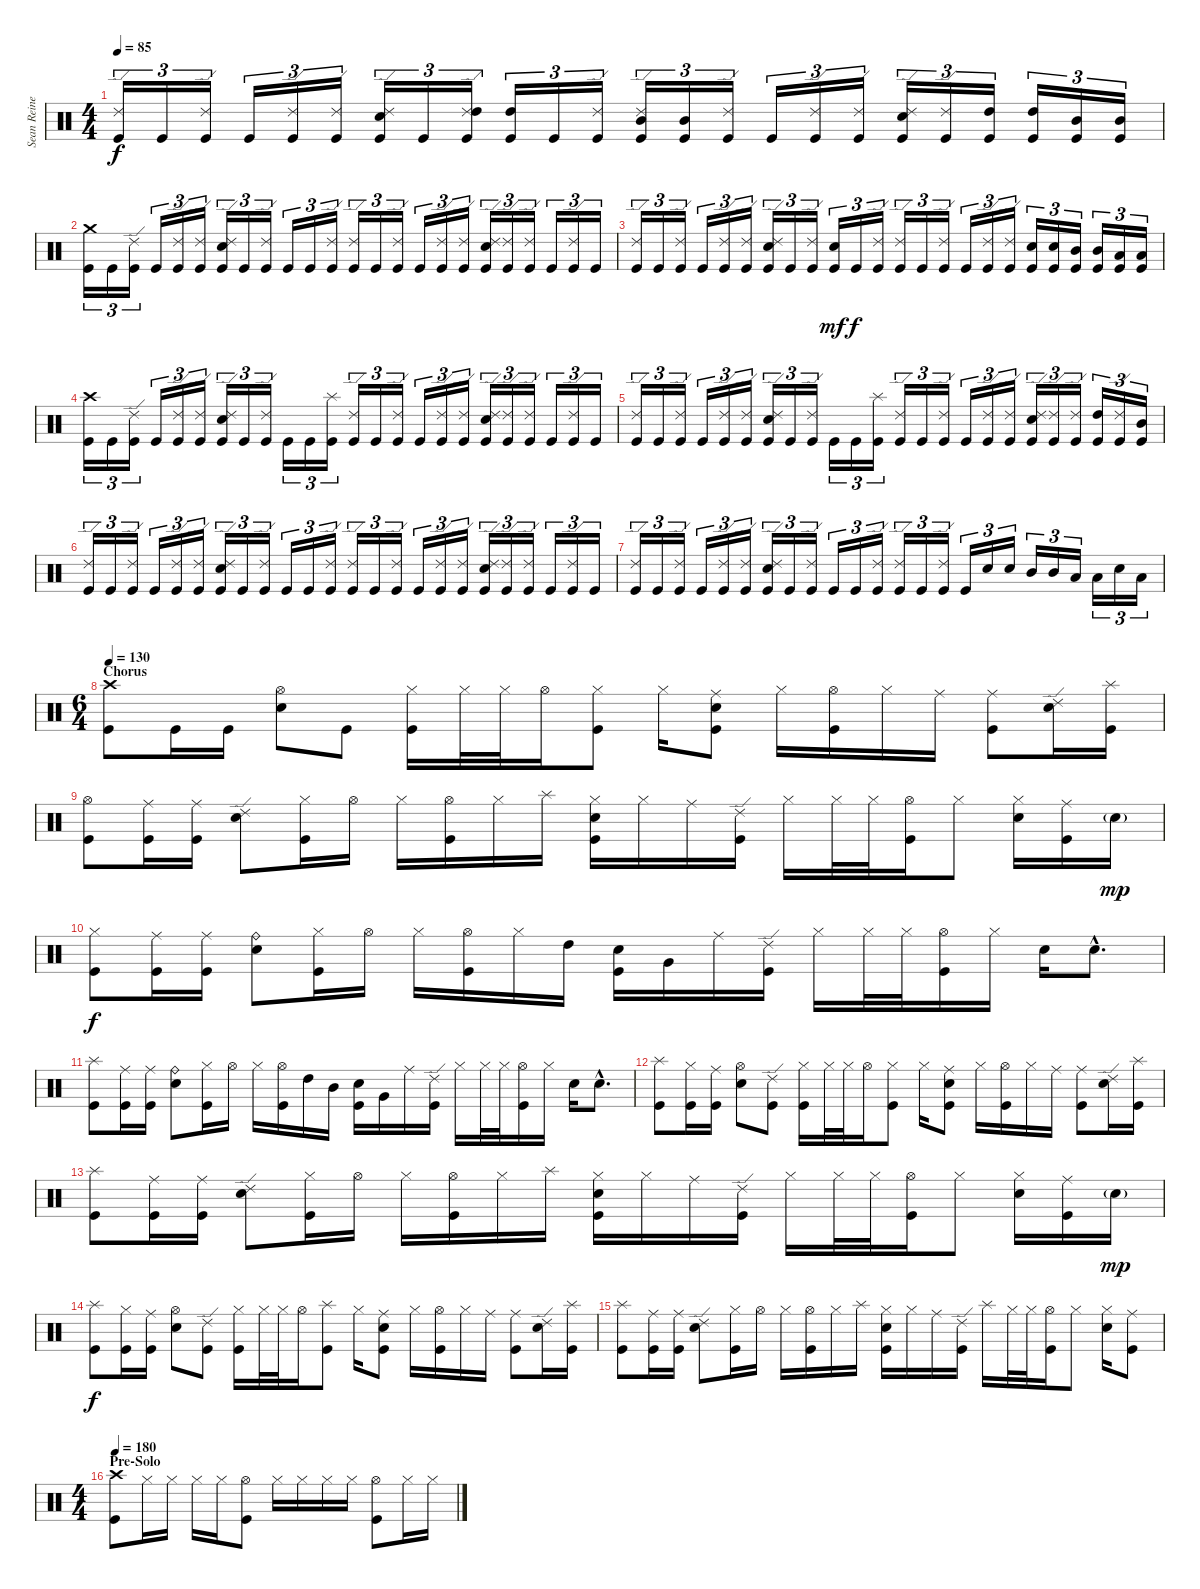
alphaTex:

\track ("Sean Reinert " "Sean Reine") {instrument percussion}
\staff {score}
\articulation defaults
\ts (4 4)
\tempo 85
\clef neutral
\ks c
("Ride (edge) 2" "Kick (hit)").16{tu (3 2) dy f} "Kick (hit)".16{tu (3 2)} ("Ride (edge) 2" "Kick (hit)").16{tu (3 2)} "Kick (hit)".16{tu (3 2)} ("Ride (edge) 2" "Kick (hit)").16{tu (3 2)} ("Ride (edge) 2" "Kick (hit)").16{tu (3 2)} ("Ride (edge) 2" "Electric Snare (hit)" "Kick (hit)").16{tu (3 2)} "Kick (hit)".16{tu (3 2)} ("Ride (edge) 2" "High Tom (hit)" "Kick (hit)").16{tu (3 2)} ("High Tom (hit)" "Kick (hit)").16{tu (3 2)} "Kick (hit)".16{tu (3 2)} ("Ride (edge) 2" "Kick (hit)").16{tu (3 2)} ("Ride (edge) 2" "Mid Tom (hit)" "Kick (hit)").16{tu (3 2)} ("Mid Tom (hit)" "Kick (hit)").16{tu (3 2)} ("Ride (edge) 2" "Kick (hit)").16{tu (3 2)} "Kick (hit)".16{tu (3 2)} ("Ride (edge) 2" "Kick (hit)").16{tu (3 2)} ("Ride (edge) 2" "Kick (hit)").16{tu (3 2)} ("Ride (edge) 2" "Electric Snare (hit)" "Kick (hit)").16{tu (3 2)} ("Ride (edge) 2" "Kick (hit)").16{tu (3 2)} ("High Tom (hit)" "Kick (hit)").16{tu (3 2)} ("High Tom (hit)" "Kick (hit)").16{tu (3 2)} ("Mid Tom (hit)" "Kick (hit)").16{tu (3 2)} ("Mid Tom (hit)" "Kick (hit)").16{tu (3 2)} |
("Crash medium (hit)" "Kick (hit)").16{tu (3 2)} "Kick (hit)".16{tu (3 2)} ("Ride (edge) 2" "Kick (hit)").16{tu (3 2)} "Kick (hit)".16{tu (3 2)} ("Ride (edge) 2" "Kick (hit)").16{tu (3 2)} ("Ride (edge) 2" "Kick (hit)").16{tu (3 2)} ("Ride (edge) 2" "Electric Snare (hit)" "Kick (hit)").16{tu (3 2)} "Kick (hit)".16{tu (3 2)} ("Ride (edge) 2" "Kick (hit)").16{tu (3 2)} "Kick (hit)".16{tu (3 2)} "Kick (hit)".16{tu (3 2)} ("Ride (edge) 2" "Kick (hit)").16{tu (3 2)} ("Ride (edge) 2" "Kick (hit)").16{tu (3 2)} "Kick (hit)".16{tu (3 2)} ("Ride (edge) 2" "Kick (hit)").16{tu (3 2)} "Kick (hit)".16{tu (3 2)} ("Ride (edge) 2" "Kick (hit)").16{tu (3 2)} ("Ride (edge) 2" "Kick (hit)").16{tu (3 2)} ("Ride (edge) 2" "Electric Snare (hit)" "Kick (hit)").16{tu (3 2)} ("Ride (edge) 2" "Kick (hit)").16{tu (3 2)} ("Ride (edge) 2" "Kick (hit)").16{tu (3 2)} "Kick (hit)".16{tu (3 2)} ("Ride (edge) 2" "Kick (hit)").16{tu (3 2)} "Kick (hit)".16{tu (3 2)} |
("Ride (edge) 2" "Kick (hit)").16{tu (3 2)} "Kick (hit)".16{tu (3 2)} ("Ride (edge) 2" "Kick (hit)").16{tu (3 2)} "Kick (hit)".16{tu (3 2)} ("Ride (edge) 2" "Kick (hit)").16{tu (3 2)} ("Ride (edge) 2" "Kick (hit)").16{tu (3 2)} ("Ride (edge) 2" "Electric Snare (hit)" "Kick (hit)").16{tu (3 2)} "Kick (hit)".16{tu (3 2)} ("Ride (edge) 2" "Kick (hit)").16{tu (3 2)} ("Electric Snare (hit)" "Kick (hit)").16{tu (3 2) dy mf} "Kick (hit)".16{tu (3 2) dy f} ("Ride (edge) 2" "Kick (hit)").16{tu (3 2)} ("Ride (edge) 2" "Kick (hit)").16{tu (3 2)} "Kick (hit)".16{tu (3 2)} ("Ride (edge) 2" "Kick (hit)").16{tu (3 2)} "Kick (hit)".16{tu (3 2)} ("Ride (edge) 2" "Kick (hit)").16{tu (3 2)} ("Ride (edge) 2" "Kick (hit)").16{tu (3 2)} ("Electric Snare (hit)" "Kick (hit)").16{tu (3 2)} ("Electric Snare (hit)" "Kick (hit)").16{tu (3 2)} ("Mid Tom (hit)" "Kick (hit)").16{tu (3 2)} ("Mid Tom (hit)" "Kick (hit)").16{tu (3 2)} ("Low Tom (hit)" "Kick (hit)").16{tu (3 2)} ("Low Tom (hit)" "Kick (hit)").16{tu (3 2)} |
("Crash high (hit)" "Kick (hit)").16{tu (3 2)} "Kick (hit)".16{tu (3 2)} ("Ride (edge) 2" "Kick (hit)").16{tu (3 2)} "Kick (hit)".16{tu (3 2)} ("Ride (edge) 2" "Kick (hit)").16{tu (3 2)} ("Ride (edge) 2" "Kick (hit)").16{tu (3 2)} ("Ride (edge) 2" "Electric Snare (hit)" "Kick (hit)").16{tu (3 2)} "Kick (hit)".16{tu (3 2)} ("Ride (edge) 2" "Kick (hit)").16{tu (3 2)} "Kick (hit)".16{tu (3 2)} "Kick (hit)".16{tu (3 2)} ("Splash (hit)" "Kick (hit)").16{tu (3 2)} ("Ride (edge) 2" "Kick (hit)").16{tu (3 2)} "Kick (hit)".16{tu (3 2)} ("Ride (edge) 2" "Kick (hit)").16{tu (3 2)} "Kick (hit)".16{tu (3 2)} ("Ride (edge) 2" "Kick (hit)").16{tu (3 2)} ("Ride (edge) 2" "Kick (hit)").16{tu (3 2)} ("Ride (edge) 2" "Electric Snare (hit)" "Kick (hit)").16{tu (3 2)} ("Ride (edge) 2" "Kick (hit)").16{tu (3 2)} ("Ride (edge) 2" "Kick (hit)").16{tu (3 2)} "Kick (hit)".16{tu (3 2)} ("Ride (edge) 2" "Kick (hit)").16{tu (3 2)} "Kick (hit)".16{tu (3 2)} |
("Ride (edge) 2" "Kick (hit)").16{tu (3 2)} "Kick (hit)".16{tu (3 2)} ("Ride (edge) 2" "Kick (hit)").16{tu (3 2)} "Kick (hit)".16{tu (3 2)} ("Ride (edge) 2" "Kick (hit)").16{tu (3 2)} ("Ride (edge) 2" "Kick (hit)").16{tu (3 2)} ("Ride (edge) 2" "Electric Snare (hit)" "Kick (hit)").16{tu (3 2)} "Kick (hit)".16{tu (3 2)} ("Ride (edge) 2" "Kick (hit)").16{tu (3 2)} "Kick (hit)".16{tu (3 2)} "Kick (hit)".16{tu (3 2)} ("Splash (hit)" "Kick (hit)").16{tu (3 2)} ("Ride (edge) 2" "Kick (hit)").16{tu (3 2)} "Kick (hit)".16{tu (3 2)} ("Ride (edge) 2" "Kick (hit)").16{tu (3 2)} "Kick (hit)".16{tu (3 2)} ("Ride (edge) 2" "Kick (hit)").16{tu (3 2)} ("Ride (edge) 2" "Kick (hit)").16{tu (3 2)} ("Ride (edge) 2" "Electric Snare (hit)" "Kick (hit)").16{tu (3 2)} ("Ride (edge) 2" "Kick (hit)").16{tu (3 2)} ("Ride (edge) 2" "Kick (hit)").16{tu (3 2)} ("High Tom (hit)" "Kick (hit)").16{tu (3 2)} ("Ride (edge) 2" "Kick (hit)").16{tu (3 2)} ("Mid Tom (hit)" "Kick (hit)").16{tu (3 2)} |
("Ride (edge) 2" "Kick (hit)").16{tu (3 2)} "Kick (hit)".16{tu (3 2)} ("Ride (edge) 2" "Kick (hit)").16{tu (3 2)} "Kick (hit)".16{tu (3 2)} ("Ride (edge) 2" "Kick (hit)").16{tu (3 2)} ("Ride (edge) 2" "Kick (hit)").16{tu (3 2)} ("Ride (edge) 2" "Electric Snare (hit)" "Kick (hit)").16{tu (3 2)} "Kick (hit)".16{tu (3 2)} ("Ride (edge) 2" "Kick (hit)").16{tu (3 2)} "Kick (hit)".16{tu (3 2)} "Kick (hit)".16{tu (3 2)} ("Ride (edge) 2" "Kick (hit)").16{tu (3 2)} ("Ride (edge) 2" "Kick (hit)").16{tu (3 2)} "Kick (hit)".16{tu (3 2)} ("Ride (edge) 2" "Kick (hit)").16{tu (3 2)} "Kick (hit)".16{tu (3 2)} ("Ride (edge) 2" "Kick (hit)").16{tu (3 2)} ("Ride (edge) 2" "Kick (hit)").16{tu (3 2)} ("Ride (edge) 2" "Electric Snare (hit)" "Kick (hit)").16{tu (3 2)} ("Ride (edge) 2" "Kick (hit)").16{tu (3 2)} ("Ride (edge) 2" "Kick (hit)").16{tu (3 2)} "Kick (hit)".16{tu (3 2)} ("Ride (edge) 2" "Kick (hit)").16{tu (3 2)} "Kick (hit)".16{tu (3 2)} |
("Ride (edge) 2" "Kick (hit)").16{tu (3 2)} "Kick (hit)".16{tu (3 2)} ("Ride (edge) 2" "Kick (hit)").16{tu (3 2)} "Kick (hit)".16{tu (3 2)} ("Ride (edge) 2" "Kick (hit)").16{tu (3 2)} ("Ride (edge) 2" "Kick (hit)").16{tu (3 2)} ("Ride (edge) 2" "Electric Snare (hit)" "Kick (hit)").16{tu (3 2)} "Kick (hit)".16{tu (3 2)} ("Ride (edge) 2" "Kick (hit)").16{tu (3 2)} "Kick (hit)".16{tu (3 2)} "Kick (hit)".16{tu (3 2)} ("Ride (edge) 2" "Kick (hit)").16{tu (3 2)} ("Ride (edge) 2" "Kick (hit)").16{tu (3 2)} "Kick (hit)".16{tu (3 2)} ("Ride (edge) 2" "Kick (hit)").16{tu (3 2)} "Kick (hit)".16{tu (3 2)} "Electric Snare (hit)".16{tu (3 2)} "Electric Snare (hit)".16{tu (3 2)} "Mid Tom (hit)".16{tu (3 2)} "Mid Tom (hit)".16{tu (3 2)} "Low Tom (hit)".16{tu (3 2)} "Low Tom (hit)".16{tu (3 2)} "Electric Snare (hit)".16{tu (3 2)} "Low Tom (hit)".16{tu (3 2)} |
\ts (6 4)
\section ("" "Chorus")
\tempo 130
("Crash high (hit)" "Kick (hit)").8 "Kick (hit)".16 "Kick (hit)".16 ("Hi-Hat (open)" "Electric Snare (hit)").8 "Kick (hit)".8 ("Hi-Hat (closed)" "Kick (hit)").16 "Hi-Hat (closed)".32 "Hi-Hat (closed)".32 "Hi-Hat (open)".16 ("Hi-Hat (closed)" "Kick (hit)").8 "Hi-Hat (closed)".16 ("Ride (middle)" "Electric Snare (hit)" "Kick (hit)").8 "Hi-Hat (closed)".16 ("Hi-Hat (open)" "Kick (hit)").16 "Hi-Hat (closed)".16 "Ride (middle)".16 ("Ride (middle)" "Kick (hit)").8 ("Ride (edge) 2" "Electric Snare (hit)").16 ("Splash (hit)" "Kick (hit)").16 |
("Hi-Hat (open)" "Kick (hit)").8 ("Ride (middle)" "Kick (hit)").16 ("Ride (middle)" "Kick (hit)").16 ("Ride (edge) 2" "Electric Snare (hit)").8 ("Hi-Hat (closed)" "Kick (hit)").16 "Hi-Hat (open)".16 "Hi-Hat (closed)".16 ("Hi-Hat (open)" "Kick (hit)").16 "Hi-Hat (closed)".16 "Splash (hit)".16 ("Hi-Hat (closed)" "Electric Snare (hit)" "Kick (hit)").16 "Hi-Hat (closed)".16 "Ride (middle)".16 ("Ride (edge) 2" "Kick (hit)").16 "Hi-Hat (closed)".16 "Hi-Hat (closed)".32 "Hi-Hat (closed)".32 ("Hi-Hat (open)" "Kick (hit)").16 "Hi-Hat (closed)".8 ("Hi-Hat (closed)" "Electric Snare (hit)").16 ("Ride (middle)" "Kick (hit)").16 "Electric Snare (hit)"{g}.16{dy mp} |
("Hi-Hat (closed)" "Kick (hit)").8{dy f} ("Ride (middle)" "Kick (hit)").16 ("Ride (middle)" "Kick (hit)").16 ("Ride (bell)" "Electric Snare (hit)").8 ("Hi-Hat (closed)" "Kick (hit)").16 "Hi-Hat (open)".16 "Hi-Hat (closed)".16 ("Hi-Hat (open)" "Kick (hit)").16 "Hi-Hat (closed)".16 "High Tom (hit)".16 ("Electric Snare (hit)" "Kick (hit)").16 "Very Low Tom (hit)".16 "Ride (middle)".16 ("Ride (edge) 2" "Kick (hit)").16 "Hi-Hat (closed)".16 "Hi-Hat (closed)".32 "Hi-Hat (closed)".32 ("Hi-Hat (open)" "Kick (hit)").16 "Hi-Hat (closed)".16 "Electric Snare (hit)".16 "Electric Snare (hit)"{hac}.8{d} |
("Splash (hit)" "Kick (hit)").8 ("Ride (middle)" "Kick (hit)").16 ("Ride (middle)" "Kick (hit)").16 ("Ride (bell)" "Electric Snare (hit)").8 ("Hi-Hat (closed)" "Kick (hit)").16 "Hi-Hat (open)".16 "Hi-Hat (closed)".16 ("Hi-Hat (open)" "Kick (hit)").16 "High Tom (hit)".16 "Mid Tom (hit)".16 ("Electric Snare (hit)" "Kick (hit)").16 "Very Low Tom (hit)".16 "Ride (middle)".16 ("Ride (edge) 2" "Kick (hit)").16 "Hi-Hat (closed)".16 "Hi-Hat (closed)".32 "Hi-Hat (closed)".32 ("Hi-Hat (open)" "Kick (hit)").16 "Hi-Hat (closed)".16 "Electric Snare (hit)".16 "Electric Snare (hit)"{hac}.8{d} |
("Splash (hit)" "Kick (hit)").8 ("Hi-Hat (closed)" "Kick (hit)").16 ("Ride (middle)" "Kick (hit)").16 ("Hi-Hat (open)" "Electric Snare (hit)").8 ("Ride (edge) 2" "Kick (hit)").8 ("Hi-Hat (closed)" "Kick (hit)").16 "Hi-Hat (closed)".32 "Hi-Hat (closed)".32 "Hi-Hat (open)".16 ("Hi-Hat (closed)" "Kick (hit)").8 "Hi-Hat (closed)".16 ("Ride (middle)" "Electric Snare (hit)" "Kick (hit)").8 "Hi-Hat (closed)".16 ("Hi-Hat (open)" "Kick (hit)").16 "Hi-Hat (closed)".16 "Ride (middle)".16 ("Ride (middle)" "Kick (hit)").8 ("Ride (edge) 2" "Electric Snare (hit)").16 ("Splash (hit)" "Kick (hit)").16 |
("Splash (hit)" "Kick (hit)").8 ("Ride (middle)" "Kick (hit)").16 ("Ride (middle)" "Kick (hit)").16 ("Ride (edge) 2" "Electric Snare (hit)").8 ("Hi-Hat (closed)" "Kick (hit)").16 "Hi-Hat (open)".16 "Hi-Hat (closed)".16 ("Hi-Hat (open)" "Kick (hit)").16 "Hi-Hat (closed)".16 "Splash (hit)".16 ("Hi-Hat (closed)" "Electric Snare (hit)" "Kick (hit)").16 "Hi-Hat (closed)".16 "Ride (middle)".16 ("Ride (edge) 2" "Kick (hit)").16 "Hi-Hat (closed)".16 "Hi-Hat (closed)".32 "Hi-Hat (closed)".32 ("Hi-Hat (open)" "Kick (hit)").16 "Hi-Hat (closed)".8 ("Hi-Hat (closed)" "Electric Snare (hit)").16 ("Ride (middle)" "Kick (hit)").16 "Electric Snare (hit)"{g}.16{dy mp} |
("Splash (hit)" "Kick (hit)").8{dy f} ("Hi-Hat (closed)" "Kick (hit)").16 ("Ride (middle)" "Kick (hit)").16 ("Hi-Hat (open)" "Electric Snare (hit)").8 ("Ride (edge) 2" "Kick (hit)").8 ("Hi-Hat (closed)" "Kick (hit)").16 "Hi-Hat (closed)".32 "Hi-Hat (closed)".32 "Hi-Hat (open)".16 ("Splash (hit)" "Kick (hit)").8 "Hi-Hat (closed)".16 ("Ride (middle)" "Electric Snare (hit)" "Kick (hit)").8 "Hi-Hat (closed)".16 ("Hi-Hat (open)" "Kick (hit)").16 "Hi-Hat (closed)".16 "Ride (middle)".16 ("Ride (middle)" "Kick (hit)").8 ("Ride (edge) 2" "Electric Snare (hit)").16 ("Splash (hit)" "Kick (hit)").16 |
("Splash (hit)" "Kick (hit)").8 ("Ride (middle)" "Kick (hit)").16 ("Ride (middle)" "Kick (hit)").16 ("Ride (edge) 2" "Electric Snare (hit)").8 ("Hi-Hat (closed)" "Kick (hit)").16 "Hi-Hat (open)".16 "Hi-Hat (closed)".16 ("Hi-Hat (open)" "Kick (hit)").16 "Hi-Hat (closed)".16 "Splash (hit)".16 ("Hi-Hat (closed)" "Electric Snare (hit)" "Kick (hit)").16 "Hi-Hat (closed)".16 "Ride (middle)".16 ("Ride (edge) 2" "Kick (hit)").16 "Splash (hit)".16 "Hi-Hat (closed)".32 "Hi-Hat (closed)".32 ("Hi-Hat (open)" "Kick (hit)").16 "Hi-Hat (closed)".8 ("Hi-Hat (closed)" "Electric Snare (hit)").16 ("Ride (middle)" "Kick (hit)").8 |
\ts (4 4)
\section ("" "Pre-Solo")
\tempo 180
("Crash high (hit)" "Kick (hit)").8 "Hi-Hat (closed)".16 "Hi-Hat (closed)".16 "Hi-Hat (closed)".16 "Hi-Hat (closed)".16 ("Hi-Hat (open)" "Kick (hit)").8 "Hi-Hat (closed)".16 "Hi-Hat (closed)".16 "Hi-Hat (closed)".16 "Hi-Hat (closed)".16 ("Hi-Hat (open)" "Kick (hit)").8 "Hi-Hat (closed)".16 "Hi-Hat (closed)".16
